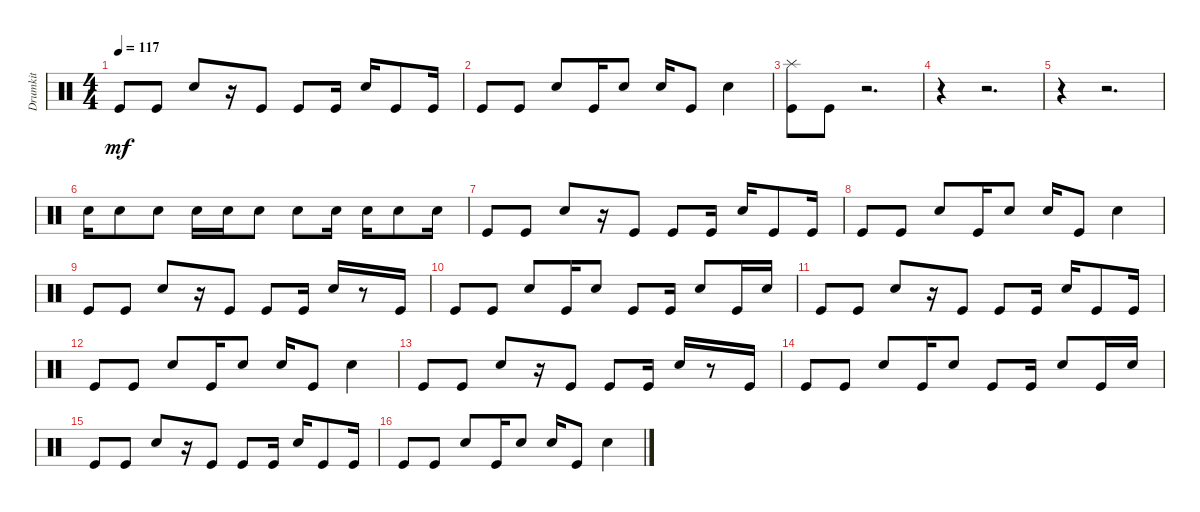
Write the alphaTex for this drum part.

\track ("Drumkit" "Drumkit") {instrument percussion}
\staff {score}
\articulation defaults
\ts (4 4)
\tempo 117
\clef neutral
\ks c "Kick (hit)".8{dy mf} "Kick (hit)".8 "Snare (hit) 2".8
r.16 "Kick (hit)".8 "Kick (hit)".8 "Kick (hit)".16 "Snare (hit) 2".16 "Kick (hit)".8 "Kick (hit)".16 |
"Kick (hit)".8 "Kick (hit)".8 "Snare (hit) 2".8 "Kick (hit)".16 "Snare (hit) 2".8 "Snare (hit) 2".16 "Kick (hit)".8 "Snare (hit) 2".4 |
("Kick (hit)" "Splash (hit)").8 "Kick (hit)".8 r.2{d} |
r.4 r.2{d} |
r.4 r.2{d} |
"Snare (hit) 2".16 "Snare (hit) 2".8 "Snare (hit) 2".8 "Snare (hit) 2".16 "Snare (hit) 2".16 "Snare (hit) 2".8 "Snare (hit) 2".8 "Snare (hit) 2".16 "Snare (hit) 2".16 "Snare (hit) 2".8 "Snare (hit) 2".16 |
"Kick (hit)".8 "Kick (hit)".8 "Snare (hit) 2".8 r.16 "Kick (hit)".8 "Kick (hit)".8 "Kick (hit)".16 "Snare (hit) 2".16 "Kick (hit)".8 "Kick (hit)".16 |
"Kick (hit)".8 "Kick (hit)".8 "Snare (hit) 2".8 "Kick (hit)".16 "Snare (hit) 2".8 "Snare (hit) 2".16 "Kick (hit)".8 "Snare (hit) 2".4 |
"Kick (hit)".8 "Kick (hit)".8 "Snare (hit) 2".8 r.16 "Kick (hit)".8 "Kick (hit)".8 "Kick (hit)".16 "Snare (hit) 2".16 r.8 "Kick (hit)".16 |
"Kick (hit)".8 "Kick (hit)".8 "Snare (hit) 2".8 "Kick (hit)".16 "Snare (hit) 2".8 "Kick (hit)".8 "Kick (hit)".16 "Snare (hit) 2".8 "Kick (hit)".16 "Snare (hit) 2".16 |
"Kick (hit)".8 "Kick (hit)".8 "Snare (hit) 2".8 r.16 "Kick (hit)".8 "Kick (hit)".8 "Kick (hit)".16 "Snare (hit) 2".16 "Kick (hit)".8 "Kick (hit)".16 |
"Kick (hit)".8 "Kick (hit)".8 "Snare (hit) 2".8 "Kick (hit)".16 "Snare (hit) 2".8 "Snare (hit) 2".16 "Kick (hit)".8 "Snare (hit) 2".4 |
"Kick (hit)".8 "Kick (hit)".8 "Snare (hit) 2".8 r.16 "Kick (hit)".8 "Kick (hit)".8 "Kick (hit)".16 "Snare (hit) 2".16 r.8 "Kick (hit)".16 |
"Kick (hit)".8 "Kick (hit)".8 "Snare (hit) 2".8 "Kick (hit)".16 "Snare (hit) 2".8 "Kick (hit)".8 "Kick (hit)".16 "Snare (hit) 2".8 "Kick (hit)".16 "Snare (hit) 2".16 |
"Kick (hit)".8 "Kick (hit)".8 "Snare (hit) 2".8 r.16 "Kick (hit)".8 "Kick (hit)".8 "Kick (hit)".16 "Snare (hit) 2".16 "Kick (hit)".8 "Kick (hit)".16 |
"Kick (hit)".8 "Kick (hit)".8 "Snare (hit) 2".8 "Kick (hit)".16 "Snare (hit) 2".8 "Snare (hit) 2".16 "Kick (hit)".8 "Snare (hit) 2".4
